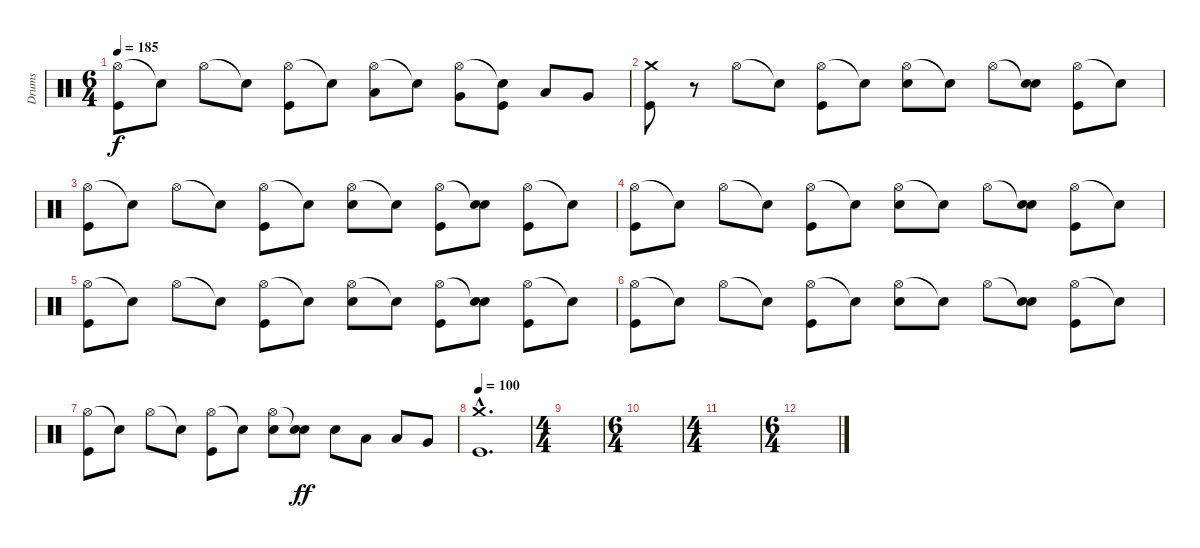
\track ("Drums" "Drums") {instrument percussion}
\staff {score}
\articulation defaults
\ts (6 4)
\tempo 185
\clef neutral
\ks c
("Hi-Hat (open)" "Kick (hit)").8{dy f} "Snare (hit)"{t}.8 "Hi-Hat (open)".8 "Snare (hit)"{t}.8 ("Hi-Hat (open)" "Kick (hit)").8 "Snare (hit)"{t}.8 ("Hi-Hat (open)" "Low Tom (hit)").8 "Snare (hit)"{t}.8 ("Hi-Hat (open)" "Very Low Tom (hit)").8 ("Snare (hit)"{t} "Kick (hit)").8 "Low Tom (hit)".8 "Very Low Tom (hit)".8 |
("Crash medium (hit)" "Kick (hit)").8 r.8 "Hi-Hat (open)".8 "Snare (hit)"{t}.8 ("Hi-Hat (open)" "Kick (hit)").8 "Snare (hit)"{t}.8 ("Hi-Hat (open)" "Electric Snare (hit)").8 "Snare (hit)"{t}.8 "Hi-Hat (open)".8 ("Snare (hit)"{t} "Electric Snare (hit)").8 ("Hi-Hat (open)" "Kick (hit)").8 "Snare (hit)"{t}.8 |
("Hi-Hat (open)" "Kick (hit)").8 "Snare (hit)"{t}.8 "Hi-Hat (open)".8 "Snare (hit)"{t}.8 ("Hi-Hat (open)" "Kick (hit)").8 "Snare (hit)"{t}.8 ("Hi-Hat (open)" "Electric Snare (hit)").8 "Snare (hit)"{t}.8 ("Hi-Hat (open)" "Kick (hit)").8 ("Snare (hit)"{t} "Electric Snare (hit)").8 ("Hi-Hat (open)" "Kick (hit)").8 "Snare (hit)"{t}.8 |
("Hi-Hat (open)" "Kick (hit)").8 "Snare (hit)"{t}.8 "Hi-Hat (open)".8 "Snare (hit)"{t}.8 ("Hi-Hat (open)" "Kick (hit)").8 "Snare (hit)"{t}.8 ("Hi-Hat (open)" "Electric Snare (hit)").8 "Snare (hit)"{t}.8 "Hi-Hat (open)".8 ("Snare (hit)"{t} "Electric Snare (hit)").8 ("Hi-Hat (open)" "Kick (hit)").8 "Snare (hit)"{t}.8 |
("Hi-Hat (open)" "Kick (hit)").8 "Snare (hit)"{t}.8 "Hi-Hat (open)".8 "Snare (hit)"{t}.8 ("Hi-Hat (open)" "Kick (hit)").8 "Snare (hit)"{t}.8 ("Hi-Hat (open)" "Electric Snare (hit)").8 "Snare (hit)"{t}.8 ("Hi-Hat (open)" "Kick (hit)").8 ("Snare (hit)"{t} "Electric Snare (hit)").8 ("Hi-Hat (open)" "Kick (hit)").8 "Snare (hit)"{t}.8 |
("Hi-Hat (open)" "Kick (hit)").8 "Snare (hit)"{t}.8 "Hi-Hat (open)".8 "Snare (hit)"{t}.8 ("Hi-Hat (open)" "Kick (hit)").8 "Snare (hit)"{t}.8 ("Hi-Hat (open)" "Electric Snare (hit)").8 "Snare (hit)"{t}.8 "Hi-Hat (open)".8 ("Snare (hit)"{t} "Electric Snare (hit)").8 ("Hi-Hat (open)" "Kick (hit)").8 "Snare (hit)"{t}.8 |
("Hi-Hat (open)" "Kick (hit)").8 "Snare (hit)"{t}.8 "Hi-Hat (open)".8 "Snare (hit)"{t}.8 ("Hi-Hat (open)" "Kick (hit)").8 "Snare (hit)"{t}.8 ("Hi-Hat (open)" "Electric Snare (hit)").8 ("Snare (hit)"{t} "Electric Snare (hit)").8{dy ff} "Electric Snare (hit)".8 "Low Tom (hit)".8 "Low Tom (hit)".8 "Very Low Tom (hit)".8 |
\tempo 100
("Crash medium (hit)"{hac} "Kick (hit)"{hac}).1{d} |
\ts (4 4)
|
\ts (6 4)
|
\ts (4 4)
|
\ts (6 4)
